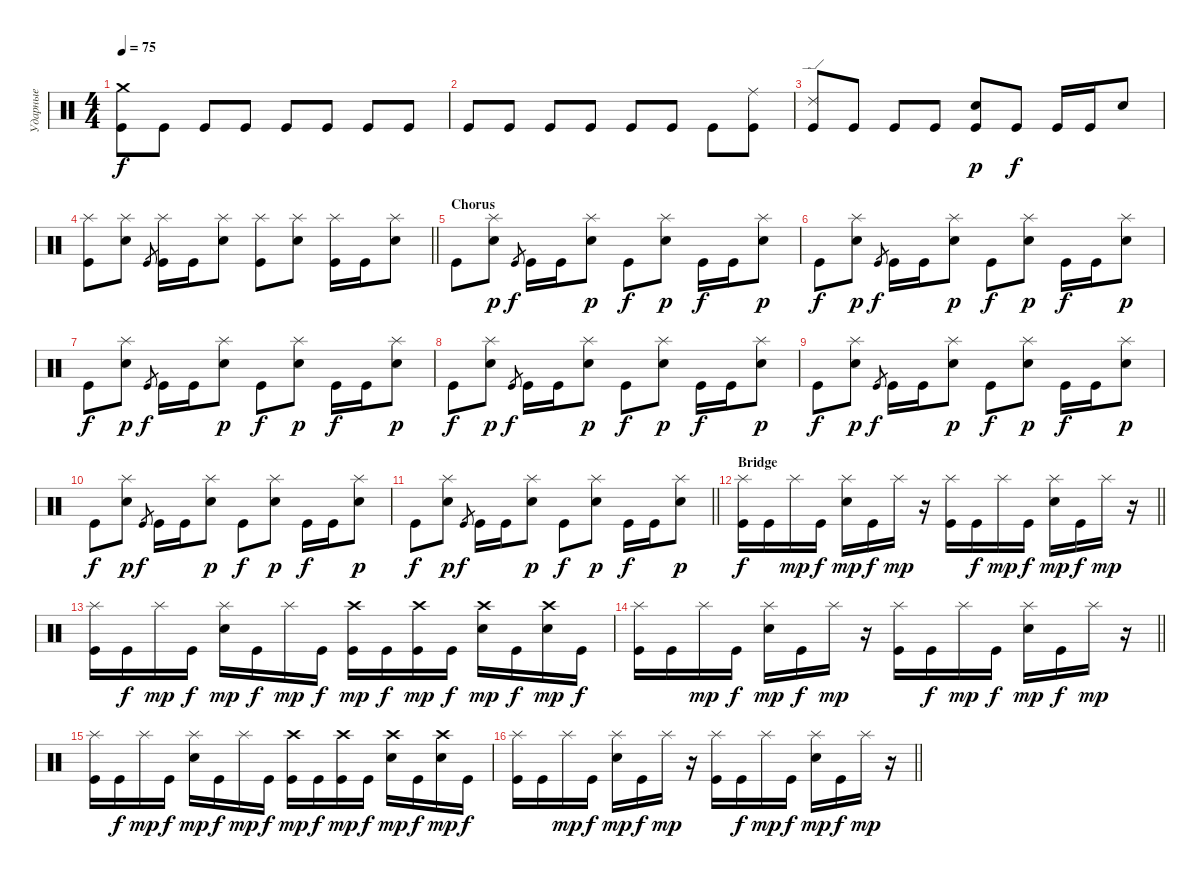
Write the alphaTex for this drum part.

\track ("Ударные" "Ударные") {instrument percussion}
\staff {score}
\articulation defaults
\ts (4 4)
\tempo 75
\clef neutral
\ks c
("Kick (hit)" "Crash medium (hit)").8{dy f} "Kick (hit)".8 "Kick (hit)".8 "Kick (hit)".8 "Kick (hit)".8 "Kick (hit)".8 "Kick (hit)".8 "Kick (hit)".8 |
"Kick (hit)".8 "Kick (hit)".8 "Kick (hit)".8 "Kick (hit)".8 "Kick (hit)".8 "Kick (hit)".8 "Kick (hit)".8 ("Kick (hit)" "Ride (middle)").8 |
("Kick (hit)" "Ride (edge) 2").8 "Kick (hit)".8 "Kick (hit)".8 "Kick (hit)".8 ("Kick (hit)" "Snare (hit) 2").8{dy p} "Kick (hit)".8{dy f} "Kick (hit)".16 "Kick (hit)".16 "Snare (hit) 2".8 |
\barLineRight lightlight
("Kick (hit)" "Splash (hit)").8 ("Snare (hit) 2" "Splash (hit)").8 "Kick (hit)".8{gr} ("Kick (hit)" "Splash (hit)").16 "Kick (hit)".16 ("Snare (hit) 2" "Splash (hit)").8 ("Kick (hit)" "Splash (hit)").8 ("Snare (hit) 2" "Splash (hit)").8 ("Kick (hit)" "Splash (hit)").16 "Kick (hit)".16 ("Snare (hit) 2" "Splash (hit)").8 |
\section ("" "Chorus")
"Kick (hit)".8 ("Snare (hit) 2" "Splash (hit)").8{dy p} "Kick (hit)".8{gr dy f} "Kick (hit)".16 "Kick (hit)".16 ("Snare (hit) 2" "Splash (hit)").8{dy p} "Kick (hit)".8{dy f} ("Snare (hit) 2" "Splash (hit)").8{dy p} "Kick (hit)".16{dy f} "Kick (hit)".16 ("Snare (hit) 2" "Splash (hit)").8{dy p} |
"Kick (hit)".8{dy f} ("Snare (hit) 2" "Splash (hit)").8{dy p} "Kick (hit)".8{gr dy f} "Kick (hit)".16 "Kick (hit)".16 ("Snare (hit) 2" "Splash (hit)").8{dy p} "Kick (hit)".8{dy f} ("Snare (hit) 2" "Splash (hit)").8{dy p} "Kick (hit)".16{dy f} "Kick (hit)".16 ("Snare (hit) 2" "Splash (hit)").8{dy p} |
"Kick (hit)".8{dy f} ("Snare (hit) 2" "Splash (hit)").8{dy p} "Kick (hit)".8{gr dy f} "Kick (hit)".16 "Kick (hit)".16 ("Snare (hit) 2" "Splash (hit)").8{dy p} "Kick (hit)".8{dy f} ("Snare (hit) 2" "Splash (hit)").8{dy p} "Kick (hit)".16{dy f} "Kick (hit)".16 ("Snare (hit) 2" "Splash (hit)").8{dy p} |
"Kick (hit)".8{dy f} ("Snare (hit) 2" "Splash (hit)").8{dy p} "Kick (hit)".8{gr dy f} "Kick (hit)".16 "Kick (hit)".16 ("Snare (hit) 2" "Splash (hit)").8{dy p} "Kick (hit)".8{dy f} ("Snare (hit) 2" "Splash (hit)").8{dy p} "Kick (hit)".16{dy f} "Kick (hit)".16 ("Snare (hit) 2" "Splash (hit)").8{dy p} |
"Kick (hit)".8{dy f} ("Snare (hit) 2" "Splash (hit)").8{dy p} "Kick (hit)".8{gr dy f} "Kick (hit)".16 "Kick (hit)".16 ("Snare (hit) 2" "Splash (hit)").8{dy p} "Kick (hit)".8{dy f} ("Snare (hit) 2" "Splash (hit)").8{dy p} "Kick (hit)".16{dy f} "Kick (hit)".16 ("Snare (hit) 2" "Splash (hit)").8{dy p} |
"Kick (hit)".8{dy f} ("Snare (hit) 2" "Splash (hit)").8{dy p} "Kick (hit)".8{gr dy f} "Kick (hit)".16 "Kick (hit)".16 ("Snare (hit) 2" "Splash (hit)").8{dy p} "Kick (hit)".8{dy f} ("Snare (hit) 2" "Splash (hit)").8{dy p} "Kick (hit)".16{dy f} "Kick (hit)".16 ("Snare (hit) 2" "Splash (hit)").8{dy p} |
\barLineRight lightlight "Kick (hit)".8{dy f}
("Snare (hit) 2" "Splash (hit)").8{dy p} "Kick (hit)".8{gr dy f} "Kick (hit)".16 "Kick (hit)".16 ("Snare (hit) 2" "Splash (hit)").8{dy p} "Kick (hit)".8{dy f} ("Snare (hit) 2" "Splash (hit)").8{dy p} "Kick (hit)".16{dy f} "Kick (hit)".16 ("Snare (hit) 2" "Splash (hit)").8{dy p} |
\section ("" "Bridge")
\barLineRight lightlight
("Splash (hit)" "Kick (hit)").16{dy f} "Kick (hit)".16 "Splash (hit)".16{dy mp} "Kick (hit)".16{dy f} ("Splash (hit)" "Snare (hit) 2").16{dy mp} "Kick (hit)".16{dy f} "Splash (hit)".16{dy mp} r.16 ("Splash (hit)" "Kick (hit)").16 "Kick (hit)".16{dy f} "Splash (hit)".16{dy mp} "Kick (hit)".16{dy f} ("Splash (hit)" "Snare (hit) 2").16{dy mp} "Kick (hit)".16{dy f} "Splash (hit)".16{dy mp} r.16 |
("Splash (hit)" "Kick (hit)").16 "Kick (hit)".16{dy f} "Splash (hit)".16{dy mp} "Kick (hit)".16{dy f} ("Splash (hit)" "Snare (hit) 2").16{dy mp} "Kick (hit)".16{dy f} "Splash (hit)".16{dy mp} "Kick (hit)".16{dy f} ("Crash high (hit)" "Kick (hit)").16{dy mp} "Kick (hit)".16{dy f} ("Crash high (hit)" "Kick (hit)").16{dy mp} "Kick (hit)".16{dy f} ("Crash high (hit)" "Snare (hit) 2").16{dy mp} "Kick (hit)".16{dy f} ("Crash high (hit)" "Snare (hit) 2").16{dy mp} "Kick (hit)".16{dy f} |
\barLineRight lightlight
("Splash (hit)" "Kick (hit)").16 "Kick (hit)".16 "Splash (hit)".16{dy mp} "Kick (hit)".16{dy f} ("Splash (hit)" "Snare (hit) 2").16{dy mp} "Kick (hit)".16{dy f} "Splash (hit)".16{dy mp} r.16 ("Splash (hit)" "Kick (hit)").16 "Kick (hit)".16{dy f} "Splash (hit)".16{dy mp} "Kick (hit)".16{dy f} ("Splash (hit)" "Snare (hit) 2").16{dy mp} "Kick (hit)".16{dy f} "Splash (hit)".16{dy mp} r.16 |
("Splash (hit)" "Kick (hit)").16 "Kick (hit)".16{dy f} "Splash (hit)".16{dy mp} "Kick (hit)".16{dy f} ("Splash (hit)" "Snare (hit) 2").16{dy mp} "Kick (hit)".16{dy f} "Splash (hit)".16{dy mp} "Kick (hit)".16{dy f} ("Crash high (hit)" "Kick (hit)").16{dy mp} "Kick (hit)".16{dy f} ("Crash high (hit)" "Kick (hit)").16{dy mp} "Kick (hit)".16{dy f} ("Crash high (hit)" "Snare (hit) 2").16{dy mp} "Kick (hit)".16{dy f} ("Crash high (hit)" "Snare (hit) 2").16{dy mp} "Kick (hit)".16{dy f} |
\barLineRight lightlight
("Splash (hit)" "Kick (hit)").16 "Kick (hit)".16 "Splash (hit)".16{dy mp} "Kick (hit)".16{dy f} ("Splash (hit)" "Snare (hit) 2").16{dy mp} "Kick (hit)".16{dy f} "Splash (hit)".16{dy mp} r.16 ("Splash (hit)" "Kick (hit)").16 "Kick (hit)".16{dy f} "Splash (hit)".16{dy mp} "Kick (hit)".16{dy f} ("Splash (hit)" "Snare (hit) 2").16{dy mp} "Kick (hit)".16{dy f} "Splash (hit)".16{dy mp} r.16
